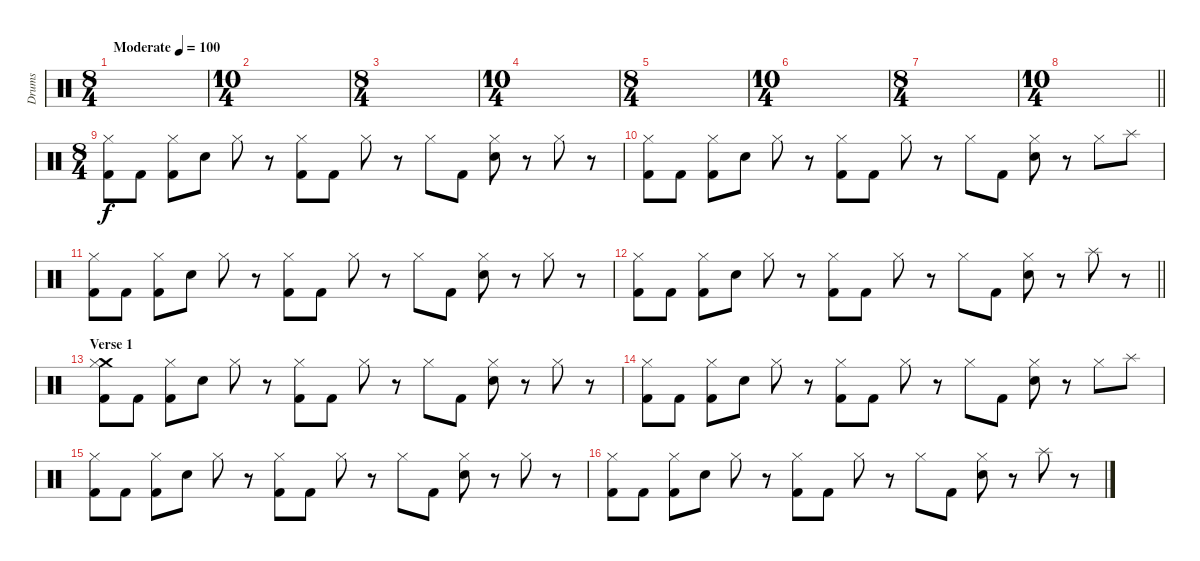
\track ("Drums" "Drums") {instrument percussion}
\staff {score}
\articulation defaults
\ts (8 4)
\tempo (100 "Moderate")
\clef neutral
\ks c
|
\ts (10 4)
|
\ts (8 4)
|
\ts (10 4)
|
\ts (8 4)
|
\ts (10 4)
|
\ts (8 4)
|
\ts (10 4)
\barLineRight lightlight
|
\ts (8 4)
\section ("" "")
("Hi-Hat (closed)" "Kick (hit) 2").8 "Kick (hit) 2".8 ("Hi-Hat (closed)" "Kick (hit) 2").8 "Electric Snare (hit)".8 "Hi-Hat (closed)".8 r.8 ("Hi-Hat (closed)" "Kick (hit) 2").8 "Kick (hit) 2".8 "Hi-Hat (closed)".8 r.8 "Hi-Hat (closed)".8 "Kick (hit) 2".8 ("Hi-Hat (closed)" "Electric Snare (hit)").8 r.8 "Hi-Hat (closed)".8 r.8 |
("Hi-Hat (closed)" "Kick (hit) 2").8 "Kick (hit) 2".8 ("Hi-Hat (closed)" "Kick (hit) 2").8 "Electric Snare (hit)".8 "Hi-Hat (closed)".8 r.8 ("Hi-Hat (closed)" "Kick (hit) 2").8 "Kick (hit) 2".8 "Hi-Hat (closed)".8 r.8 "Hi-Hat (closed)".8 "Kick (hit) 2".8 ("Hi-Hat (closed)" "Electric Snare (hit)").8 r.8 "Hi-Hat (closed)".8 "Splash (hit)".8 |
("Hi-Hat (closed)" "Kick (hit) 2").8 "Kick (hit) 2".8 ("Hi-Hat (closed)" "Kick (hit) 2").8 "Electric Snare (hit)".8 "Hi-Hat (closed)".8 r.8 ("Hi-Hat (closed)" "Kick (hit) 2").8 "Kick (hit) 2".8 "Hi-Hat (closed)".8 r.8 "Hi-Hat (closed)".8 "Kick (hit) 2".8 ("Hi-Hat (closed)" "Electric Snare (hit)").8 r.8 "Hi-Hat (closed)".8 r.8 |
\barLineRight lightlight
("Hi-Hat (closed)" "Kick (hit) 2").8 "Kick (hit) 2".8 ("Hi-Hat (closed)" "Kick (hit) 2").8 "Electric Snare (hit)".8 "Hi-Hat (closed)".8 r.8 ("Hi-Hat (closed)" "Kick (hit) 2").8 "Kick (hit) 2".8 "Hi-Hat (closed)".8 r.8 "Hi-Hat (closed)".8 "Kick (hit) 2".8 ("Hi-Hat (closed)" "Electric Snare (hit)").8 r.8 "Splash (hit)".8 r.8 |
\section ("" "Verse 1")
("Crash medium (hit)" "Hi-Hat (closed)" "Kick (hit) 2").8 "Kick (hit) 2".8 ("Hi-Hat (closed)" "Kick (hit) 2").8 "Electric Snare (hit)".8 "Hi-Hat (closed)".8 r.8 ("Hi-Hat (closed)" "Kick (hit) 2").8 "Kick (hit) 2".8 "Hi-Hat (closed)".8 r.8 "Hi-Hat (closed)".8 "Kick (hit) 2".8 ("Hi-Hat (closed)" "Electric Snare (hit)").8 r.8 "Hi-Hat (closed)".8 r.8 |
("Hi-Hat (closed)" "Kick (hit) 2").8 "Kick (hit) 2".8 ("Hi-Hat (closed)" "Kick (hit) 2").8 "Electric Snare (hit)".8 "Hi-Hat (closed)".8 r.8 ("Hi-Hat (closed)" "Kick (hit) 2").8 "Kick (hit) 2".8 "Hi-Hat (closed)".8 r.8 "Hi-Hat (closed)".8 "Kick (hit) 2".8 ("Hi-Hat (closed)" "Electric Snare (hit)").8 r.8 "Hi-Hat (closed)".8 "Splash (hit)".8 |
("Hi-Hat (closed)" "Kick (hit) 2").8 "Kick (hit) 2".8 ("Hi-Hat (closed)" "Kick (hit) 2").8 "Electric Snare (hit)".8 "Hi-Hat (closed)".8 r.8 ("Hi-Hat (closed)" "Kick (hit) 2").8 "Kick (hit) 2".8 "Hi-Hat (closed)".8 r.8 "Hi-Hat (closed)".8 "Kick (hit) 2".8 ("Hi-Hat (closed)" "Electric Snare (hit)").8 r.8 "Hi-Hat (closed)".8 r.8 |
("Hi-Hat (closed)" "Kick (hit) 2").8 "Kick (hit) 2".8 ("Hi-Hat (closed)" "Kick (hit) 2").8 "Electric Snare (hit)".8 "Hi-Hat (closed)".8 r.8 ("Hi-Hat (closed)" "Kick (hit) 2").8 "Kick (hit) 2".8 "Hi-Hat (closed)".8 r.8 "Hi-Hat (closed)".8 "Kick (hit) 2".8 ("Hi-Hat (closed)" "Electric Snare (hit)").8 r.8 "Splash (hit)".8 r.8
